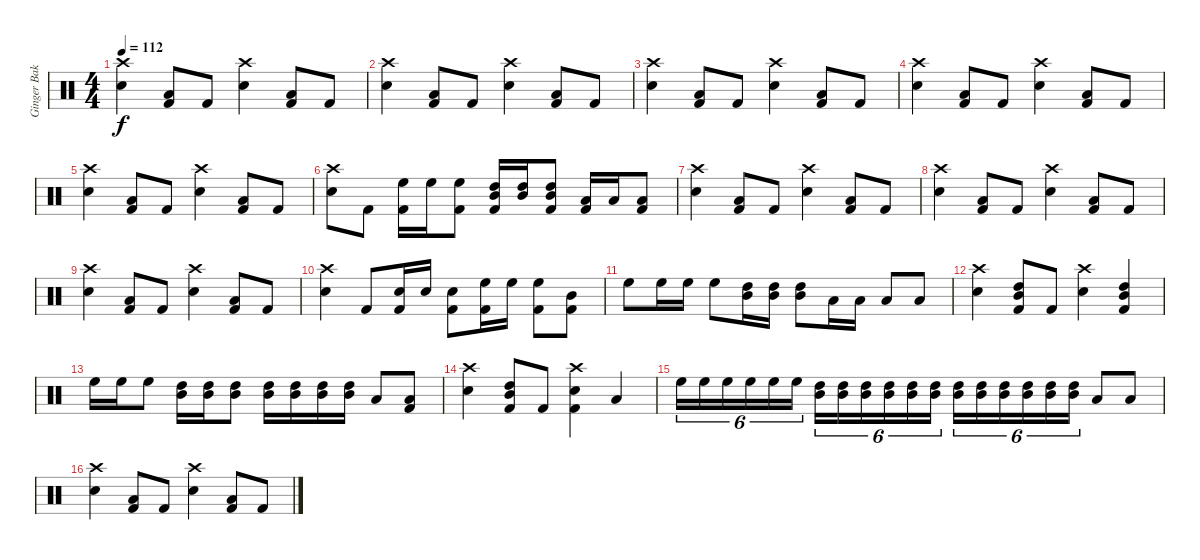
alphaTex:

\track ("Ginger Baker" "Ginger Bak") {instrument percussion}
\staff {score}
\articulation defaults
\ts (4 4)
\tempo 112
\clef neutral
\ks c
("Crash high (hit)" "Snare (hit) 2").4{dy f} ("Low Tom (hit)" "Kick (hit) 2").8 "Kick (hit) 2".8 ("Crash high (hit)" "Snare (hit) 2").4 ("Low Tom (hit)" "Kick (hit) 2").8 "Kick (hit) 2".8 |
("Crash high (hit)" "Snare (hit) 2").4 ("Low Tom (hit)" "Kick (hit) 2").8 "Kick (hit) 2".8 ("Crash high (hit)" "Snare (hit) 2").4 ("Low Tom (hit)" "Kick (hit) 2").8 "Kick (hit) 2".8 |
("Crash high (hit)" "Snare (hit) 2").4 ("Low Tom (hit)" "Kick (hit) 2").8 "Kick (hit) 2".8 ("Crash high (hit)" "Snare (hit) 2").4 ("Low Tom (hit)" "Kick (hit) 2").8 "Kick (hit) 2".8 |
("Crash high (hit)" "Snare (hit) 2").4 ("Low Tom (hit)" "Kick (hit) 2").8 "Kick (hit) 2".8 ("Crash high (hit)" "Snare (hit) 2").4 ("Low Tom (hit)" "Kick (hit) 2").8 "Kick (hit) 2".8 |
("Crash high (hit)" "Snare (hit) 2").4 ("Low Tom (hit)" "Kick (hit) 2").8 "Kick (hit) 2".8 ("Crash high (hit)" "Snare (hit) 2").4 ("Low Tom (hit)" "Kick (hit) 2").8 "Kick (hit) 2".8 |
("Crash high (hit)" "Snare (hit) 2").8 "Kick (hit) 2".8 ("High Floor Tom (hit)" "Kick (hit) 2").16 "High Floor Tom (hit)".16 ("High Floor Tom (hit)" "Kick (hit) 2").8 ("High Tom (hit)" "Mid Tom (hit)" "Kick (hit) 2").16 ("High Tom (hit)" "Mid Tom (hit)").16 ("High Tom (hit)" "Mid Tom (hit)" "Kick (hit) 2").8 ("Low Tom (hit)" "Kick (hit) 2").16 "Low Tom (hit)".16 ("Low Tom (hit)" "Kick (hit) 2").8 |
("Crash high (hit)" "Snare (hit) 2").4 ("Low Tom (hit)" "Kick (hit) 2").8 "Kick (hit) 2".8 ("Crash high (hit)" "Snare (hit) 2").4 ("Low Tom (hit)" "Kick (hit) 2").8 "Kick (hit) 2".8 |
("Crash high (hit)" "Snare (hit) 2").4 ("Low Tom (hit)" "Kick (hit) 2").8 "Kick (hit) 2".8 ("Crash high (hit)" "Snare (hit) 2").4 ("Low Tom (hit)" "Kick (hit) 2").8 "Kick (hit) 2".8 |
("Crash high (hit)" "Snare (hit) 2").4 ("Low Tom (hit)" "Kick (hit) 2").8 "Kick (hit) 2".8 ("Crash high (hit)" "Snare (hit) 2").4 ("Low Tom (hit)" "Kick (hit) 2").8 "Kick (hit) 2".8 |
("Crash high (hit)" "Snare (hit) 2").4 "Kick (hit) 2".8 ("Snare (hit) 2" "Kick (hit) 2").16 "Snare (hit) 2".16 ("Snare (hit) 2" "Kick (hit) 2").8 ("High Floor Tom (hit)" "Kick (hit) 2").16 "High Floor Tom (hit)".16 ("High Floor Tom (hit)" "Kick (hit) 2").8 ("Mid Tom (hit)" "Kick (hit) 2").8 |
"High Floor Tom (hit)".8 "High Floor Tom (hit)".16 "High Floor Tom (hit)".16 "High Floor Tom (hit)".8 ("High Tom (hit)" "Mid Tom (hit)").16 ("High Tom (hit)" "Mid Tom (hit)").16 ("High Tom (hit)" "Mid Tom (hit)").8 "Low Tom (hit)".16 "Low Tom (hit)".16 "Low Tom (hit)".8 "Low Tom (hit)".8 |
("Crash high (hit)" "Snare (hit) 2").4 ("High Tom (hit)" "Mid Tom (hit)" "Kick (hit) 2").8 "Kick (hit) 2".8 ("Crash high (hit)" "Snare (hit) 2").4 ("High Tom (hit)" "Mid Tom (hit)" "Kick (hit) 2").4 |
"High Floor Tom (hit)".16 "High Floor Tom (hit)".16 "High Floor Tom (hit)".8 ("High Tom (hit)" "Mid Tom (hit)").16 ("High Tom (hit)" "Mid Tom (hit)").16 ("High Tom (hit)" "Mid Tom (hit)").8 ("High Tom (hit)" "Mid Tom (hit)").16 ("High Tom (hit)" "Mid Tom (hit)").16 ("High Tom (hit)" "Mid Tom (hit)").16 ("High Tom (hit)" "Mid Tom (hit)").16 "Low Tom (hit)".8 ("Low Tom (hit)" "Kick (hit) 2").8 |
("Crash high (hit)" "Snare (hit) 2").4 ("High Tom (hit)" "Mid Tom (hit)" "Kick (hit) 2").8 "Kick (hit) 2".8 ("Crash high (hit)" "Snare (hit) 2" "Kick (hit) 2").4 "Low Tom (hit)".4 |
"High Floor Tom (hit)".16{tu (6 4)} "High Floor Tom (hit)".16{tu (6 4)} "High Floor Tom (hit)".16{tu (6 4)} "High Floor Tom (hit)".16{tu (6 4)} "High Floor Tom (hit)".16{tu (6 4)} "High Floor Tom (hit)".16{tu (6 4)} ("High Tom (hit)" "Mid Tom (hit)").16{tu (6 4)} ("High Tom (hit)" "Mid Tom (hit)").16{tu (6 4)} ("High Tom (hit)" "Mid Tom (hit)").16{tu (6 4)} ("High Tom (hit)" "Mid Tom (hit)").16{tu (6 4)} ("High Tom (hit)" "Mid Tom (hit)").16{tu (6 4)} ("High Tom (hit)" "Mid Tom (hit)").16{tu (6 4)} ("High Tom (hit)" "Mid Tom (hit)").16{tu (6 4)} ("High Tom (hit)" "Mid Tom (hit)").16{tu (6 4)} ("High Tom (hit)" "Mid Tom (hit)").16{tu (6 4)} ("High Tom (hit)" "Mid Tom (hit)").16{tu (6 4)} ("High Tom (hit)" "Mid Tom (hit)").16{tu (6 4)} ("High Tom (hit)" "Mid Tom (hit)").16{tu (6 4)} "Low Tom (hit)".8 "Low Tom (hit)".8 |
("Crash high (hit)" "Snare (hit) 2").4 ("Low Tom (hit)" "Kick (hit) 2").8 "Kick (hit) 2".8 ("Crash high (hit)" "Snare (hit) 2").4 ("Low Tom (hit)" "Kick (hit) 2").8 "Kick (hit) 2".8
